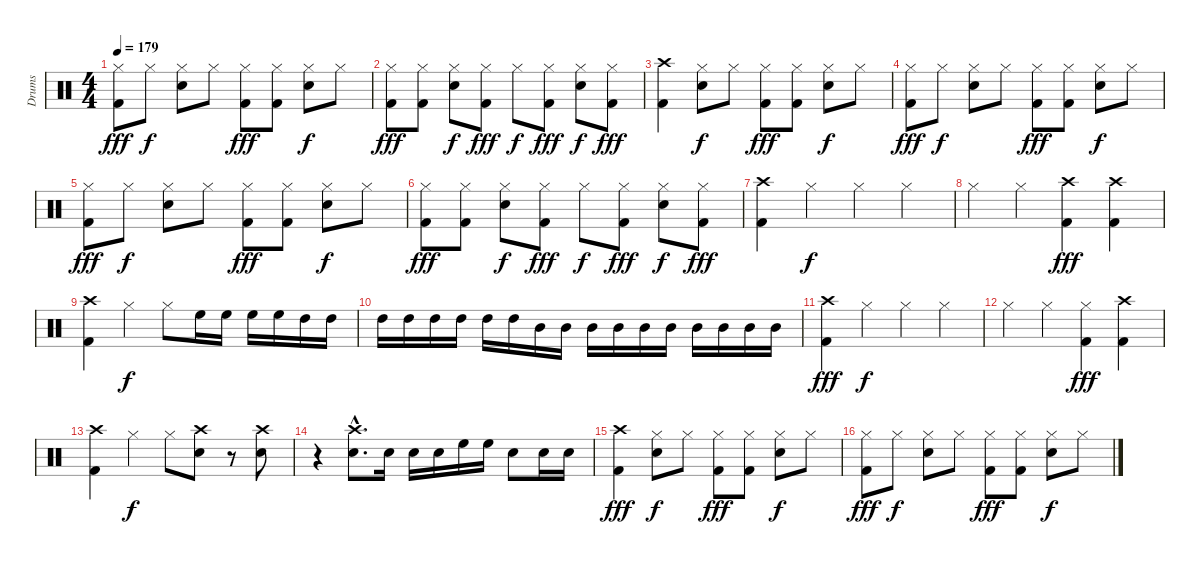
\track ("Drums" "Drums") {instrument percussion}
\staff {score}
\articulation defaults
\ts (4 4)
\tempo 179
\clef neutral
\ks c
("Hi-Hat (closed)" "Kick (hit) 2").8{dy fff} "Hi-Hat (closed)".8{dy f} ("Hi-Hat (closed)" "Electric Snare (hit)").8 "Hi-Hat (closed)".8 ("Hi-Hat (closed)" "Kick (hit) 2").8{dy fff} ("Hi-Hat (closed)" "Kick (hit) 2").8 ("Hi-Hat (closed)" "Electric Snare (hit)").8{dy f} "Hi-Hat (closed)".8 |
("Hi-Hat (closed)" "Kick (hit) 2").8{dy fff} ("Hi-Hat (closed)" "Kick (hit) 2").8 ("Hi-Hat (closed)" "Electric Snare (hit)").8{dy f} ("Hi-Hat (closed)" "Kick (hit) 2").8{dy fff} "Hi-Hat (closed)".8{dy f} ("Hi-Hat (closed)" "Kick (hit) 2").8{dy fff} ("Hi-Hat (closed)" "Electric Snare (hit)").8{dy f} ("Hi-Hat (closed)" "Kick (hit) 2").8{dy fff} |
("Crash high (hit)" "Kick (hit) 2").4 ("Hi-Hat (closed)" "Electric Snare (hit)").8{dy f} "Hi-Hat (closed)".8 ("Hi-Hat (closed)" "Kick (hit) 2").8{dy fff} ("Hi-Hat (closed)" "Kick (hit) 2").8 ("Hi-Hat (closed)" "Electric Snare (hit)").8{dy f} "Hi-Hat (closed)".8 |
("Hi-Hat (closed)" "Kick (hit) 2").8{dy fff} "Hi-Hat (closed)".8{dy f} ("Hi-Hat (closed)" "Electric Snare (hit)").8 "Hi-Hat (closed)".8 ("Hi-Hat (closed)" "Kick (hit) 2").8{dy fff} ("Hi-Hat (closed)" "Kick (hit) 2").8 ("Hi-Hat (closed)" "Electric Snare (hit)").8{dy f} "Hi-Hat (closed)".8 |
("Hi-Hat (closed)" "Kick (hit) 2").8{dy fff} "Hi-Hat (closed)".8{dy f} ("Hi-Hat (closed)" "Electric Snare (hit)").8 "Hi-Hat (closed)".8 ("Hi-Hat (closed)" "Kick (hit) 2").8{dy fff} ("Hi-Hat (closed)" "Kick (hit) 2").8 ("Hi-Hat (closed)" "Electric Snare (hit)").8{dy f} "Hi-Hat (closed)".8 |
("Hi-Hat (closed)" "Kick (hit) 2").8{dy fff} ("Hi-Hat (closed)" "Kick (hit) 2").8 ("Hi-Hat (closed)" "Electric Snare (hit)").8{dy f} ("Hi-Hat (closed)" "Kick (hit) 2").8{dy fff} "Hi-Hat (closed)".8{dy f} ("Hi-Hat (closed)" "Kick (hit) 2").8{dy fff} ("Hi-Hat (closed)" "Electric Snare (hit)").8{dy f} ("Hi-Hat (closed)" "Kick (hit) 2").8{dy fff} |
("Crash high (hit)" "Kick (hit) 2").4 "Hi-Hat (closed)".4{dy f} "Hi-Hat (closed)".4 "Hi-Hat (closed)".4 |
"Hi-Hat (closed)".4 "Hi-Hat (closed)".4 ("Crash high (hit)" "Kick (hit) 2").4{dy fff} ("Crash high (hit)" "Kick (hit) 2").4 |
("Crash high (hit)" "Kick (hit) 2").4 "Hi-Hat (closed)".4{dy f} "Hi-Hat (closed)".8 "High Floor Tom (hit)".16 "High Floor Tom (hit)".16 "High Floor Tom (hit)".16 "High Floor Tom (hit)".16 "High Tom (hit)".16 "High Tom (hit)".16 |
"High Tom (hit)".16 "High Tom (hit)".16 "High Tom (hit)".16 "High Tom (hit)".16 "High Tom (hit)".16 "High Tom (hit)".16 "Mid Tom (hit)".16 "Mid Tom (hit)".16 "Mid Tom (hit)".16 "Mid Tom (hit)".16 "Mid Tom (hit)".16 "Mid Tom (hit)".16 "Mid Tom (hit)".16 "Mid Tom (hit)".16 "Mid Tom (hit)".16 "Mid Tom (hit)".16 |
("Crash high (hit)" "Kick (hit) 2").4{dy fff} "Hi-Hat (closed)".4{dy f} "Hi-Hat (closed)".4 "Hi-Hat (closed)".4 |
"Hi-Hat (closed)".4 "Hi-Hat (closed)".4 ("Hi-Hat (closed)" "Kick (hit) 2").4{dy fff} ("Crash high (hit)" "Kick (hit) 2").4 |
("Crash high (hit)" "Kick (hit) 2").4 "Hi-Hat (closed)".4{dy f} "Hi-Hat (closed)".8 ("Crash high (hit)" "Electric Snare (hit)").8 r.8 ("Crash high (hit)" "Electric Snare (hit)").8 |
r.4 ("Crash high (hit)"{hac} "Electric Snare (hit)"{hac}).8{d} "Electric Snare (hit)".16 "Electric Snare (hit)".16 "Electric Snare (hit)".16 "High Floor Tom (hit)".16 "High Floor Tom (hit)".16 "Electric Snare (hit)".8 "Electric Snare (hit)".16 "Electric Snare (hit)".16 |
("Crash high (hit)" "Kick (hit) 2").4{dy fff} ("Hi-Hat (closed)" "Electric Snare (hit)").8{dy f} "Hi-Hat (closed)".8 ("Hi-Hat (closed)" "Kick (hit) 2").8{dy fff} ("Hi-Hat (closed)" "Kick (hit) 2").8 ("Hi-Hat (closed)" "Electric Snare (hit)").8{dy f} "Hi-Hat (closed)".8 |
("Hi-Hat (closed)" "Kick (hit) 2").8{dy fff} "Hi-Hat (closed)".8{dy f} ("Hi-Hat (closed)" "Electric Snare (hit)").8 "Hi-Hat (closed)".8 ("Hi-Hat (closed)" "Kick (hit) 2").8{dy fff} ("Hi-Hat (closed)" "Kick (hit) 2").8 ("Hi-Hat (closed)" "Electric Snare (hit)").8{dy f} "Hi-Hat (closed)".8
